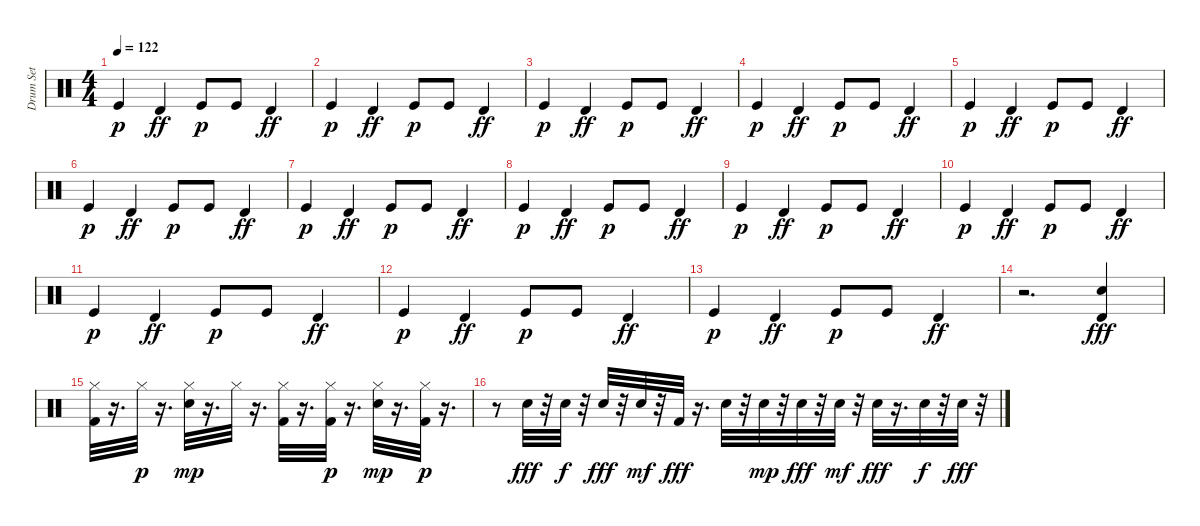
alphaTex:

\track ("Drum Set" "Drum Set") {instrument percussion}
\staff {score}
\articulation defaults
\ts (4 4)
\tempo 122
\clef neutral
\ks c "Kick (hit)".4{dy p} "Timbale high (hit)".4{dy ff} "Kick (hit)".8{dy p} "Kick (hit)".8 "Timbale high (hit)".4{dy ff}
|
"Kick (hit)".4{dy p} "Timbale high (hit)".4{dy ff} "Kick (hit)".8{dy p} "Kick (hit)".8 "Timbale high (hit)".4{dy ff} |
"Kick (hit)".4{dy p} "Timbale high (hit)".4{dy ff} "Kick (hit)".8{dy p} "Kick (hit)".8 "Timbale high (hit)".4{dy ff} |
"Kick (hit)".4{dy p} "Timbale high (hit)".4{dy ff} "Kick (hit)".8{dy p} "Kick (hit)".8 "Timbale high (hit)".4{dy ff} |
"Kick (hit)".4{dy p} "Timbale high (hit)".4{dy ff} "Kick (hit)".8{dy p} "Kick (hit)".8 "Timbale high (hit)".4{dy ff} |
"Kick (hit)".4{dy p} "Timbale high (hit)".4{dy ff} "Kick (hit)".8{dy p} "Kick (hit)".8 "Timbale high (hit)".4{dy ff} |
"Kick (hit)".4{dy p} "Timbale high (hit)".4{dy ff} "Kick (hit)".8{dy p} "Kick (hit)".8 "Timbale high (hit)".4{dy ff} |
"Kick (hit)".4{dy p} "Timbale high (hit)".4{dy ff} "Kick (hit)".8{dy p} "Kick (hit)".8 "Timbale high (hit)".4{dy ff} |
"Kick (hit)".4{dy p} "Timbale high (hit)".4{dy ff} "Kick (hit)".8{dy p} "Kick (hit)".8 "Timbale high (hit)".4{dy ff} |
"Kick (hit)".4{dy p} "Timbale high (hit)".4{dy ff} "Kick (hit)".8{dy p} "Kick (hit)".8 "Timbale high (hit)".4{dy ff} |
"Kick (hit)".4{dy p} "Timbale high (hit)".4{dy ff} "Kick (hit)".8{dy p} "Kick (hit)".8 "Timbale high (hit)".4{dy ff} |
"Kick (hit)".4{dy p} "Timbale high (hit)".4{dy ff} "Kick (hit)".8{dy p} "Kick (hit)".8 "Timbale high (hit)".4{dy ff} |
"Kick (hit)".4{dy p} "Timbale high (hit)".4{dy ff} "Kick (hit)".8{dy p} "Kick (hit)".8 "Timbale high (hit)".4{dy ff} |
r.2{d} ("Electric Snare (hit)" "Timbale high (hit)").4{dy fff} |
("Hi-Hat (closed)" "Kick (hit) 2").32 r.16{d} "Hi-Hat (closed)".32{dy p} r.16{d} ("Electric Snare (hit)" "Hi-Hat (closed)").32{dy mp} r.16{d} "Hi-Hat (closed)".32 r.16{d} ("Kick (hit) 2" "Hi-Hat (closed)").32 r.16{d} ("Kick (hit) 2" "Hi-Hat (closed)").32{dy p} r.16{d} ("Electric Snare (hit)" "Hi-Hat (closed)").32{dy mp} r.16{d} ("Kick (hit) 2" "Hi-Hat (closed)").32{dy p} r.16{d} |
r.8 "Electric Snare (hit)".32{dy fff} r.32 "Electric Snare (hit)".32{dy f} r.32 "Electric Snare (hit)".32{dy fff} r.32 "Electric Snare (hit)".32{dy mf} r.32 "Kick (hit) 2".32{dy fff} r.16{d} "Electric Snare (hit)".32 r.32 "Electric Snare (hit)".32{dy mp} r.32 "Electric Snare (hit)".32{dy fff} r.32 "Electric Snare (hit)".32{dy mf} r.32 "Electric Snare (hit)".32{dy fff} r.16{d} "Electric Snare (hit)".32{dy f} r.32 "Electric Snare (hit)".32{dy fff} r.32
